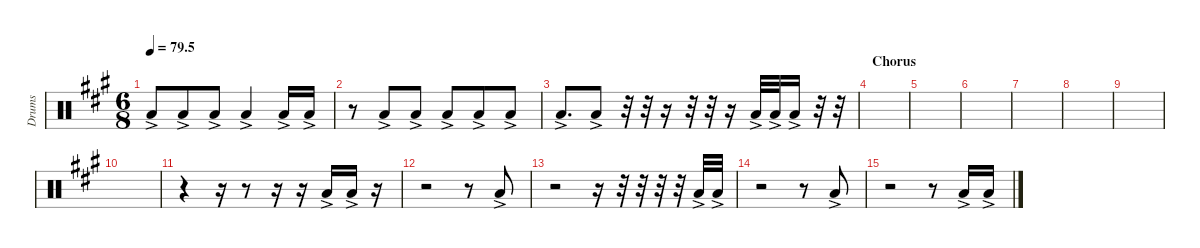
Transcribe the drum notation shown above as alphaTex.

\defaultSystemsLayout 4
\hideDynamics
\bracketExtendMode nobrackets
\otherSystemsTrackNameOrientation horizontal
\track ("Tom 03" "Drums") {instrument percussion}
\staff {score}
\articulation defaults
\ts (6 8)
\tempo
79.5
\accidentals auto
\clef neutral
\ottava regular
\simile none
\scale
0.333333
\ks a "Low Tom (hit)"{ac acc forcenatural}.8{dy f} "Low Tom (hit)"{ac acc forcenatural}.8 "Low Tom (hit)"{ac acc forcenatural}.8 "Low Tom (hit)"{ac acc forcenatural}.4 "Low Tom (hit)"{ac acc forcenatural}.16 "Low Tom (hit)"{ac acc forcenatural}.16
|
\scale
0.333333 r.8 "Low Tom (hit)"{ac acc forcenatural}.8 "Low Tom (hit)"{ac acc forcenatural}.8 "Low Tom (hit)"{ac acc forcenatural}.8 "Low Tom (hit)"{ac acc forcenatural}.8 "Low Tom (hit)"{ac acc forcenatural}.8 |
\scale
0.333333 "Low Tom (hit)"{ac acc forcenatural}.8{d} "Low Tom (hit)"{ac acc forcenatural}.8 r.32 r.32 r.16 r.32 r.32 r.16 "Low Tom (hit)"{ac acc forcenatural}.32 "Low Tom (hit)"{ac acc forcenatural}.32 "Low Tom (hit)"{ac acc forcenatural}.16 r.32 r.32 |
\section ("" "Chorus")
\scale
0.333333 |
\scale
0.333333 |
\scale
0.333333 |
\scale
0.333333 |
\scale
0.333333 |
\scale
0.333333 |
\scale
0.333333 |
\scale
0.333333 r.4 r.16 r.8 r.16 r.16 "Low Tom (hit)"{ac acc forcenatural}.16 "Low Tom (hit)"{ac acc forcenatural}.16 r.16 |
\scale
0.333333 r.2 r.8 "Low Tom (hit)"{ac acc forcenatural}.8 |
\scale
0.333333 r.2 r.16 r.32 r.32 r.32 r.32 "Low Tom (hit)"{ac acc forcenatural}.32 "Low Tom (hit)"{ac acc forcenatural}.32 |
\scale
0.333333 r.2 r.8 "Low Tom (hit)"{ac acc forcenatural}.8 |
\scale
0.333333 r.2 r.8 "Low Tom (hit)"{ac acc forcenatural}.16 "Low Tom (hit)"{ac acc forcenatural}.16 |
\scale
0.333333
